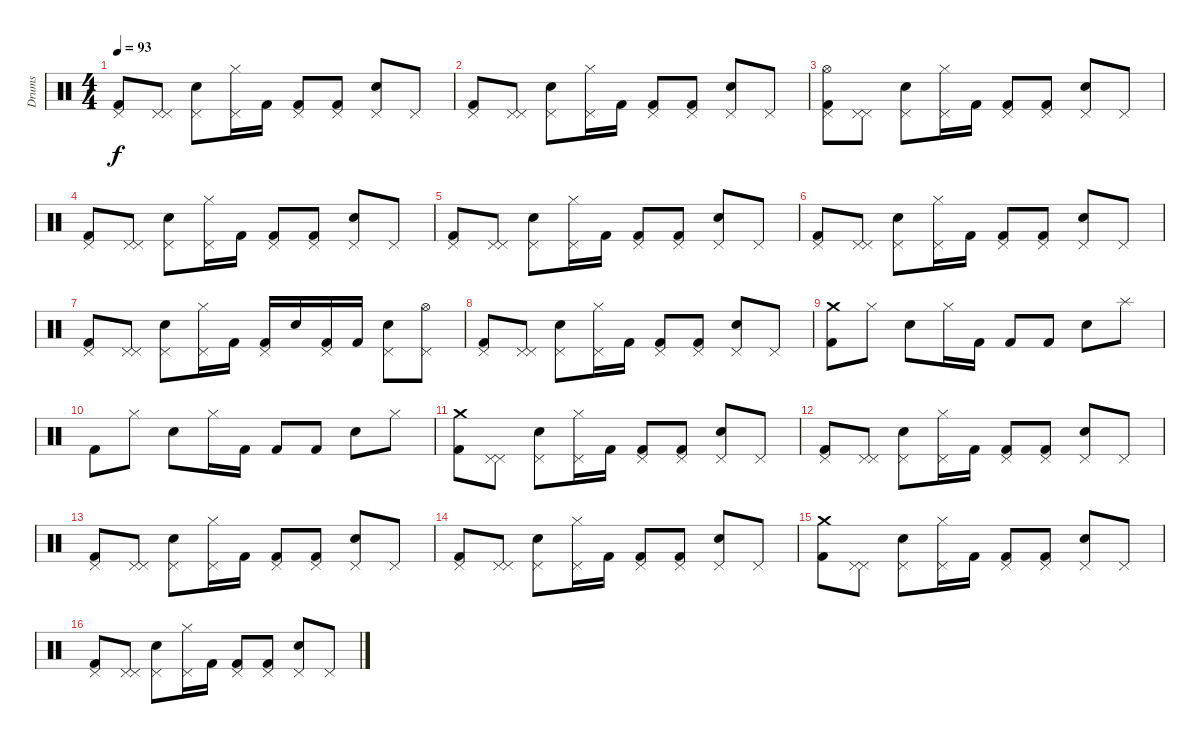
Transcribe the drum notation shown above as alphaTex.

\track ("Drums" "Drums") {instrument percussion}
\staff {score}
\articulation defaults
\ts (4 4)
\tempo 93
\clef neutral
\ks c
("Pedal Hi-Hat (hit)" "Kick (hit) 2").8{dy f} ("Pedal Hi-Hat (hit)" "Pedal Hi-Hat (hit)").8 ("Electric Snare (hit)" "Pedal Hi-Hat (hit)").8 ("Hi-Hat (closed)" "Pedal Hi-Hat (hit)").16 "Kick (hit) 2".16 ("Pedal Hi-Hat (hit)" "Kick (hit) 2").8 ("Pedal Hi-Hat (hit)" "Kick (hit) 2").8 ("Electric Snare (hit)" "Pedal Hi-Hat (hit)").8 "Pedal Hi-Hat (hit)".8 |
("Pedal Hi-Hat (hit)" "Kick (hit) 2").8 ("Pedal Hi-Hat (hit)" "Pedal Hi-Hat (hit)").8 ("Electric Snare (hit)" "Pedal Hi-Hat (hit)").8 ("Hi-Hat (closed)" "Pedal Hi-Hat (hit)").16 "Kick (hit) 2".16 ("Pedal Hi-Hat (hit)" "Kick (hit) 2").8 ("Pedal Hi-Hat (hit)" "Kick (hit) 2").8 ("Electric Snare (hit)" "Pedal Hi-Hat (hit)").8 "Pedal Hi-Hat (hit)".8 |
("Hi-Hat (open)" "Pedal Hi-Hat (hit)" "Kick (hit) 2").8 ("Pedal Hi-Hat (hit)" "Pedal Hi-Hat (hit)").8 ("Electric Snare (hit)" "Pedal Hi-Hat (hit)").8 ("Hi-Hat (closed)" "Pedal Hi-Hat (hit)").16 "Kick (hit) 2".16 ("Pedal Hi-Hat (hit)" "Kick (hit) 2").8 ("Pedal Hi-Hat (hit)" "Kick (hit) 2").8 ("Electric Snare (hit)" "Pedal Hi-Hat (hit)").8 "Pedal Hi-Hat (hit)".8 |
("Pedal Hi-Hat (hit)" "Kick (hit) 2").8 ("Pedal Hi-Hat (hit)" "Pedal Hi-Hat (hit)").8 ("Electric Snare (hit)" "Pedal Hi-Hat (hit)").8 ("Hi-Hat (closed)" "Pedal Hi-Hat (hit)").16 "Kick (hit) 2".16 ("Pedal Hi-Hat (hit)" "Kick (hit) 2").8 ("Pedal Hi-Hat (hit)" "Kick (hit) 2").8 ("Electric Snare (hit)" "Pedal Hi-Hat (hit)").8 "Pedal Hi-Hat (hit)".8 |
("Pedal Hi-Hat (hit)" "Kick (hit) 2").8 ("Pedal Hi-Hat (hit)" "Pedal Hi-Hat (hit)").8 ("Electric Snare (hit)" "Pedal Hi-Hat (hit)").8 ("Hi-Hat (closed)" "Pedal Hi-Hat (hit)").16 "Kick (hit) 2".16 ("Pedal Hi-Hat (hit)" "Kick (hit) 2").8 ("Pedal Hi-Hat (hit)" "Kick (hit) 2").8 ("Electric Snare (hit)" "Pedal Hi-Hat (hit)").8 "Pedal Hi-Hat (hit)".8 |
("Pedal Hi-Hat (hit)" "Kick (hit) 2").8 ("Pedal Hi-Hat (hit)" "Pedal Hi-Hat (hit)").8 ("Electric Snare (hit)" "Pedal Hi-Hat (hit)").8 ("Hi-Hat (closed)" "Pedal Hi-Hat (hit)").16 "Kick (hit) 2".16 ("Pedal Hi-Hat (hit)" "Kick (hit) 2").8 ("Pedal Hi-Hat (hit)" "Kick (hit) 2").8 ("Electric Snare (hit)" "Pedal Hi-Hat (hit)").8 "Pedal Hi-Hat (hit)".8 |
("Pedal Hi-Hat (hit)" "Kick (hit) 2").8 ("Pedal Hi-Hat (hit)" "Pedal Hi-Hat (hit)").8 ("Electric Snare (hit)" "Pedal Hi-Hat (hit)").8 ("Hi-Hat (closed)" "Pedal Hi-Hat (hit)").16 "Kick (hit) 2".16 ("Pedal Hi-Hat (hit)" "Kick (hit) 2").16 "Electric Snare (hit)".16 ("Pedal Hi-Hat (hit)" "Kick (hit) 2").16 "Kick (hit) 2".16 ("Electric Snare (hit)" "Pedal Hi-Hat (hit)").8 ("Hi-Hat (open)" "Pedal Hi-Hat (hit)").8 |
("Pedal Hi-Hat (hit)" "Kick (hit) 2").8 ("Pedal Hi-Hat (hit)" "Pedal Hi-Hat (hit)").8 ("Electric Snare (hit)" "Pedal Hi-Hat (hit)").8 ("Hi-Hat (closed)" "Pedal Hi-Hat (hit)").16 "Kick (hit) 2".16 ("Pedal Hi-Hat (hit)" "Kick (hit) 2").8 ("Pedal Hi-Hat (hit)" "Kick (hit) 2").8 ("Electric Snare (hit)" "Pedal Hi-Hat (hit)").8 "Pedal Hi-Hat (hit)".8 |
("Crash medium (hit)" "Kick (hit) 2").8 "Hi-Hat (closed)".8 "Electric Snare (hit)".8 "Hi-Hat (closed)".16 "Kick (hit) 2".16 "Kick (hit) 2".8 "Kick (hit) 2".8 "Electric Snare (hit)".8 "Splash (hit)".8 |
"Kick (hit) 2".8 "Hi-Hat (closed)".8 "Electric Snare (hit)".8 "Hi-Hat (closed)".16 "Kick (hit) 2".16 "Kick (hit) 2".8 "Kick (hit) 2".8 "Electric Snare (hit)".8 "Hi-Hat (closed)".8 |
("Crash medium (hit)" "Kick (hit) 2").8 ("Pedal Hi-Hat (hit)" "Pedal Hi-Hat (hit)").8 ("Electric Snare (hit)" "Pedal Hi-Hat (hit)").8 ("Hi-Hat (closed)" "Pedal Hi-Hat (hit)").16 "Kick (hit) 2".16 ("Pedal Hi-Hat (hit)" "Kick (hit) 2").8 ("Pedal Hi-Hat (hit)" "Kick (hit) 2").8 ("Electric Snare (hit)" "Pedal Hi-Hat (hit)").8 "Pedal Hi-Hat (hit)".8 |
("Pedal Hi-Hat (hit)" "Kick (hit) 2").8 ("Pedal Hi-Hat (hit)" "Pedal Hi-Hat (hit)").8 ("Electric Snare (hit)" "Pedal Hi-Hat (hit)").8 ("Hi-Hat (closed)" "Pedal Hi-Hat (hit)").16 "Kick (hit) 2".16 ("Pedal Hi-Hat (hit)" "Kick (hit) 2").8 ("Pedal Hi-Hat (hit)" "Kick (hit) 2").8 ("Electric Snare (hit)" "Pedal Hi-Hat (hit)").8 "Pedal Hi-Hat (hit)".8 |
("Pedal Hi-Hat (hit)" "Kick (hit) 2").8 ("Pedal Hi-Hat (hit)" "Pedal Hi-Hat (hit)").8 ("Electric Snare (hit)" "Pedal Hi-Hat (hit)").8 ("Hi-Hat (closed)" "Pedal Hi-Hat (hit)").16 "Kick (hit) 2".16 ("Pedal Hi-Hat (hit)" "Kick (hit) 2").8 ("Pedal Hi-Hat (hit)" "Kick (hit) 2").8 ("Electric Snare (hit)" "Pedal Hi-Hat (hit)").8 "Pedal Hi-Hat (hit)".8 |
("Pedal Hi-Hat (hit)" "Kick (hit) 2").8 ("Pedal Hi-Hat (hit)" "Pedal Hi-Hat (hit)").8 ("Electric Snare (hit)" "Pedal Hi-Hat (hit)").8 ("Hi-Hat (closed)" "Pedal Hi-Hat (hit)").16 "Kick (hit) 2".16 ("Pedal Hi-Hat (hit)" "Kick (hit) 2").8 ("Pedal Hi-Hat (hit)" "Kick (hit) 2").8 ("Electric Snare (hit)" "Pedal Hi-Hat (hit)").8 "Pedal Hi-Hat (hit)".8 |
("Crash medium (hit)" "Kick (hit) 2").8 ("Pedal Hi-Hat (hit)" "Pedal Hi-Hat (hit)").8 ("Electric Snare (hit)" "Pedal Hi-Hat (hit)").8 ("Hi-Hat (closed)" "Pedal Hi-Hat (hit)").16 "Kick (hit) 2".16 ("Pedal Hi-Hat (hit)" "Kick (hit) 2").8 ("Pedal Hi-Hat (hit)" "Kick (hit) 2").8 ("Electric Snare (hit)" "Pedal Hi-Hat (hit)").8 "Pedal Hi-Hat (hit)".8 |
("Pedal Hi-Hat (hit)" "Kick (hit) 2").8 ("Pedal Hi-Hat (hit)" "Pedal Hi-Hat (hit)").8 ("Electric Snare (hit)" "Pedal Hi-Hat (hit)").8 ("Hi-Hat (closed)" "Pedal Hi-Hat (hit)").16 "Kick (hit) 2".16 ("Pedal Hi-Hat (hit)" "Kick (hit) 2").8 ("Pedal Hi-Hat (hit)" "Kick (hit) 2").8 ("Electric Snare (hit)" "Pedal Hi-Hat (hit)").8 "Pedal Hi-Hat (hit)".8
